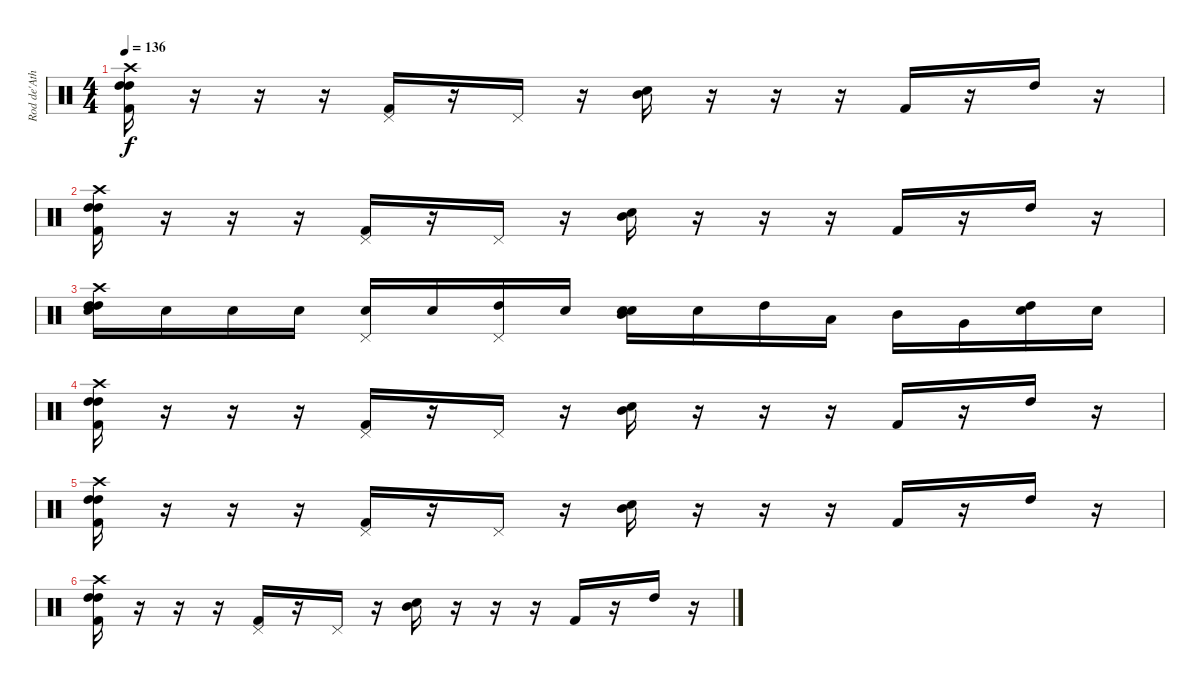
\track ("Rod de'Ath" "Rod de'Ath") {instrument percussion}
\staff {score}
\articulation defaults
\ts (4 4)
\tempo 136
\clef neutral
\ks c
("Crash high (hit)" "High Tom (hit)" "High Tom (hit)" "Kick (hit) 2").16{dy f} r.16 r.16 r.16 ("Pedal Hi-Hat (hit)" "Kick (hit) 2").16 r.16 "Pedal Hi-Hat (hit)".16 r.16 ("Electric Snare (hit)" "Mid Tom (hit)").16 r.16 r.16 r.16 "Kick (hit) 2".16 r.16 "High Tom (hit)".16 r.16 |
("Crash high (hit)" "High Tom (hit)" "High Tom (hit)" "Kick (hit) 2").16 r.16 r.16 r.16 ("Pedal Hi-Hat (hit)" "Kick (hit) 2").16 r.16 "Pedal Hi-Hat (hit)".16 r.16 ("Electric Snare (hit)" "Mid Tom (hit)").16 r.16 r.16 r.16 "Kick (hit) 2".16 r.16 "High Tom (hit)".16 r.16 |
("Crash high (hit)" "High Tom (hit)" "High Tom (hit)" "Electric Snare (hit)").16 "Electric Snare (hit)".16 "Snare (hit) 2".16 "Electric Snare (hit)".16 ("Pedal Hi-Hat (hit)" "Electric Snare (hit)").16 "Electric Snare (hit)".16 ("Pedal Hi-Hat (hit)" "High Tom (hit)").16 "Snare (hit) 2".16 ("Electric Snare (hit)" "Mid Tom (hit)" "Electric Snare (hit)").16 "Electric Snare (hit)".16 "High Tom (hit)".16 "Low Tom (hit)".16 "Mid Tom (hit)".16 "Very Low Tom (hit)".16 ("High Tom (hit)" "Electric Snare (hit)").16 "Electric Snare (hit)".16 |
("Crash high (hit)" "High Tom (hit)" "High Tom (hit)" "Kick (hit) 2").16 r.16 r.16 r.16 ("Pedal Hi-Hat (hit)" "Kick (hit) 2").16 r.16 "Pedal Hi-Hat (hit)".16 r.16 ("Electric Snare (hit)" "Mid Tom (hit)").16 r.16 r.16 r.16 "Kick (hit) 2".16 r.16 "High Tom (hit)".16 r.16 |
("Crash high (hit)" "High Tom (hit)" "High Tom (hit)" "Kick (hit) 2").16 r.16 r.16 r.16 ("Pedal Hi-Hat (hit)" "Kick (hit) 2").16 r.16 "Pedal Hi-Hat (hit)".16 r.16 ("Electric Snare (hit)" "Mid Tom (hit)").16 r.16 r.16 r.16 "Kick (hit) 2".16 r.16 "High Tom (hit)".16 r.16 |
("Crash high (hit)" "High Tom (hit)" "High Tom (hit)" "Kick (hit) 2").16 r.16 r.16 r.16 ("Pedal Hi-Hat (hit)" "Kick (hit) 2").16 r.16 "Pedal Hi-Hat (hit)".16 r.16 ("Electric Snare (hit)" "Mid Tom (hit)").16 r.16 r.16 r.16 "Kick (hit) 2".16 r.16 "High Tom (hit)".16 r.16
